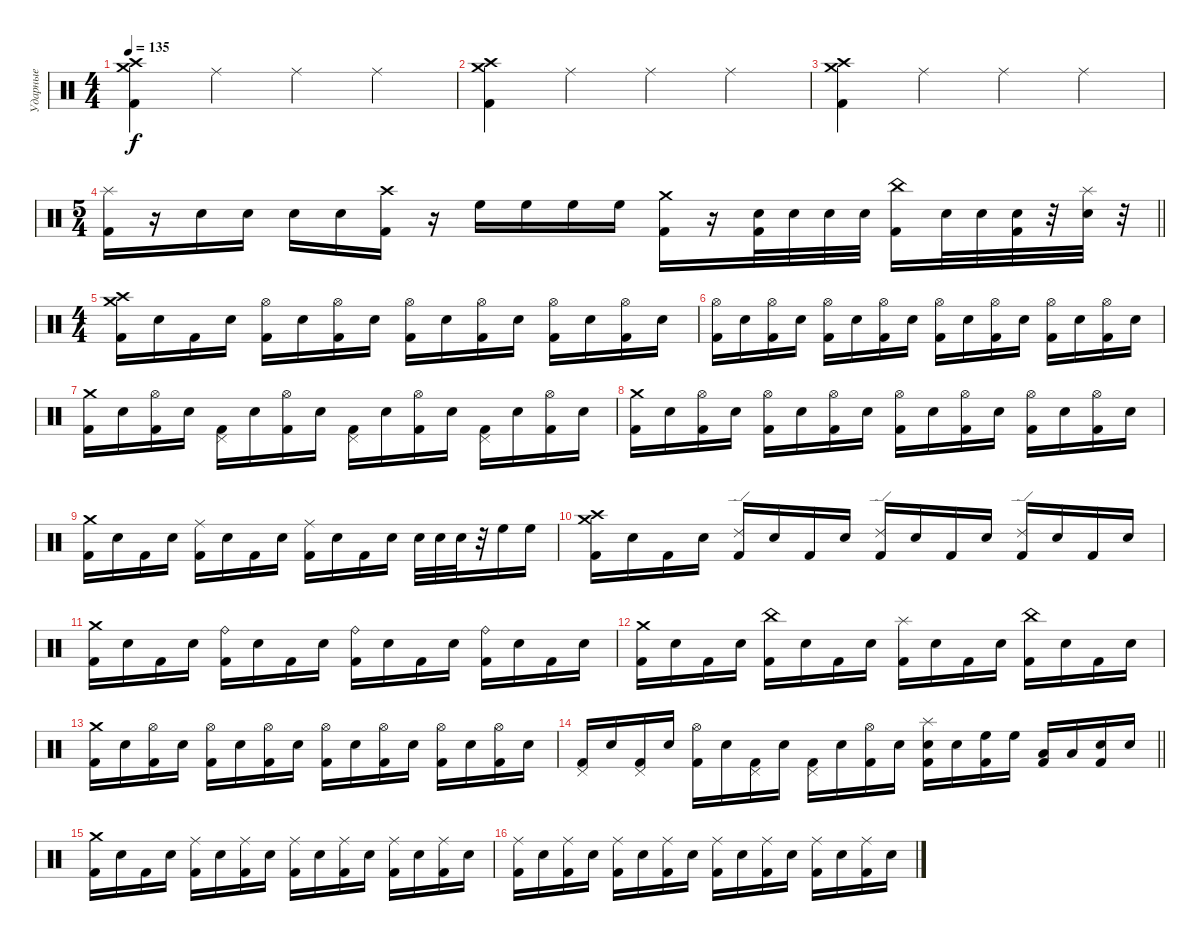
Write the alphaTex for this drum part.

\track ("Ударные" "Ударные") {instrument percussion}
\staff {score}
\articulation defaults
\ts (4 4)
\tempo 135
\clef neutral
\ks c
("Crash medium (hit)" "Crash high (hit)" "Kick (hit) 2").4{dy f} "Ride (middle)".4 "Ride (middle)".4 "Ride (middle)".4 |
("Crash medium (hit)" "Crash high (hit)" "Kick (hit) 2").4 "Ride (middle)".4 "Ride (middle)".4 "Ride (middle)".4 |
("Crash medium (hit)" "Crash high (hit)" "Kick (hit) 2").4 "Ride (middle)".4 "Ride (middle)".4 "Ride (middle)".4 |
\ts (5 4)
\barLineRight lightlight
("Splash (hit)" "Kick (hit) 2").16 r.16 "Electric Snare (hit)".16 "Electric Snare (hit)".16 "Electric Snare (hit)".16 "Electric Snare (hit)".16 ("Crash high (hit)" "Kick (hit) 2").16 r.16 "High Floor Tom (hit)".16 "High Floor Tom (hit)".16 "High Floor Tom (hit)".16 "High Floor Tom (hit)".16 ("Crash medium (hit)" "Kick (hit) 2").16 r.16 ("Electric Snare (hit)" "Kick (hit) 2").32 "Electric Snare (hit)".32 "Electric Snare (hit)".32 "Electric Snare (hit)".32 ("China (hit)" "Kick (hit) 2").16 "Electric Snare (hit)".32 "Electric Snare (hit)".32 ("Electric Snare (hit)" "Kick (hit) 2").32 r.32 ("Splash (hit)" "Electric Snare (hit)").32 r.32 |
\ts (4 4)
("Crash medium (hit)" "Crash high (hit)" "Kick (hit) 2").16 "Electric Snare (hit)".16 "Kick (hit) 2".16 "Electric Snare (hit)".16 ("Hi-Hat (open)" "Kick (hit) 2").16 "Electric Snare (hit)".16 ("Hi-Hat (open)" "Kick (hit) 2").16 "Electric Snare (hit)".16 ("Hi-Hat (open)" "Kick (hit) 2").16 "Electric Snare (hit)".16 ("Hi-Hat (open)" "Kick (hit) 2").16 "Electric Snare (hit)".16 ("Hi-Hat (open)" "Kick (hit) 2").16 "Electric Snare (hit)".16 ("Hi-Hat (open)" "Kick (hit) 2").16 "Electric Snare (hit)".16 |
("Hi-Hat (open)" "Kick (hit) 2").16 "Electric Snare (hit)".16 ("Hi-Hat (open)" "Kick (hit) 2").16 "Electric Snare (hit)".16 ("Hi-Hat (open)" "Kick (hit) 2").16 "Electric Snare (hit)".16 ("Hi-Hat (open)" "Kick (hit) 2").16 "Electric Snare (hit)".16 ("Hi-Hat (open)" "Kick (hit) 2").16 "Electric Snare (hit)".16 ("Hi-Hat (open)" "Kick (hit) 2").16 "Electric Snare (hit)".16 ("Hi-Hat (open)" "Kick (hit) 2").16 "Electric Snare (hit)".16 ("Hi-Hat (open)" "Kick (hit) 2").16 "Electric Snare (hit)".16 |
("Crash medium (hit)" "Kick (hit) 2").16 "Electric Snare (hit)".16 ("Hi-Hat (open)" "Kick (hit) 2").16 "Electric Snare (hit)".16 ("Pedal Hi-Hat (hit)" "Kick (hit) 2").16 "Electric Snare (hit)".16 ("Hi-Hat (open)" "Kick (hit) 2").16 "Electric Snare (hit)".16 ("Pedal Hi-Hat (hit)" "Kick (hit) 2").16 "Electric Snare (hit)".16 ("Hi-Hat (open)" "Kick (hit) 2").16 "Electric Snare (hit)".16 ("Pedal Hi-Hat (hit)" "Kick (hit) 2").16 "Electric Snare (hit)".16 ("Hi-Hat (open)" "Kick (hit) 2").16 "Electric Snare (hit)".16 |
("Crash medium (hit)" "Kick (hit) 2").16 "Electric Snare (hit)".16 ("Hi-Hat (open)" "Kick (hit) 2").16 "Electric Snare (hit)".16 ("Hi-Hat (open)" "Kick (hit) 2").16 "Electric Snare (hit)".16 ("Hi-Hat (open)" "Kick (hit) 2").16 "Electric Snare (hit)".16 ("Hi-Hat (open)" "Kick (hit) 2").16 "Electric Snare (hit)".16 ("Hi-Hat (open)" "Kick (hit) 2").16 "Electric Snare (hit)".16 ("Hi-Hat (open)" "Kick (hit) 2").16 "Electric Snare (hit)".16 ("Hi-Hat (open)" "Kick (hit) 2").16 "Electric Snare (hit)".16 |
("Crash medium (hit)" "Kick (hit) 2").16 "Electric Snare (hit)".16 "Kick (hit) 2".16 "Electric Snare (hit)".16 ("Ride (middle)" "Kick (hit) 2").16 "Electric Snare (hit)".16 "Kick (hit) 2".16 "Electric Snare (hit)".16 ("Ride (middle)" "Kick (hit) 2").16 "Electric Snare (hit)".16 "Kick (hit) 2".16 "Electric Snare (hit)".16 "Electric Snare (hit)".32 "Electric Snare (hit)".32 "Electric Snare (hit)".32 r.32 "High Floor Tom (hit)".16 "High Floor Tom (hit)".16 |
("Crash medium (hit)" "Crash high (hit)" "Kick (hit) 2").16 "Electric Snare (hit)".16 "Kick (hit) 2".16 "Electric Snare (hit)".16 ("Ride (edge) 2" "Kick (hit) 2").16 "Electric Snare (hit)".16 "Kick (hit) 2".16 "Electric Snare (hit)".16 ("Ride (edge) 2" "Kick (hit) 2").16 "Electric Snare (hit)".16 "Kick (hit) 2".16 "Electric Snare (hit)".16 ("Ride (edge) 2" "Kick (hit) 2").16 "Electric Snare (hit)".16 "Kick (hit) 2".16 "Electric Snare (hit)".16 |
("Crash medium (hit)" "Kick (hit) 2").16 "Electric Snare (hit)".16 "Kick (hit) 2".16 "Electric Snare (hit)".16 ("Ride (bell)" "Kick (hit) 2").16 "Electric Snare (hit)".16 "Kick (hit) 2".16 "Electric Snare (hit)".16 ("Ride (bell)" "Kick (hit) 2").16 "Electric Snare (hit)".16 "Kick (hit) 2".16 "Electric Snare (hit)".16 ("Ride (bell)" "Kick (hit) 2").16 "Electric Snare (hit)".16 "Kick (hit) 2".16 "Electric Snare (hit)".16 |
("Crash medium (hit)" "Kick (hit) 2").16 "Electric Snare (hit)".16 "Kick (hit) 2".16 "Electric Snare (hit)".16 ("China (hit)" "Kick (hit) 2").16 "Electric Snare (hit)".16 "Kick (hit) 2".16 "Electric Snare (hit)".16 ("Splash (hit)" "Kick (hit) 2").16 "Electric Snare (hit)".16 "Kick (hit) 2".16 "Electric Snare (hit)".16 ("China (hit)" "Kick (hit) 2").16 "Electric Snare (hit)".16 "Kick (hit) 2".16 "Electric Snare (hit)".16 |
("Crash medium (hit)" "Kick (hit) 2").16 "Electric Snare (hit)".16 ("Hi-Hat (open)" "Kick (hit) 2").16 "Electric Snare (hit)".16 ("Hi-Hat (open)" "Kick (hit) 2").16 "Electric Snare (hit)".16 ("Hi-Hat (open)" "Kick (hit) 2").16 "Electric Snare (hit)".16 ("Hi-Hat (open)" "Kick (hit) 2").16 "Electric Snare (hit)".16 ("Hi-Hat (open)" "Kick (hit) 2").16 "Electric Snare (hit)".16 ("Hi-Hat (open)" "Kick (hit) 2").16 "Electric Snare (hit)".16 ("Hi-Hat (open)" "Kick (hit) 2").16 "Electric Snare (hit)".16 |
\barLineRight lightlight
("Pedal Hi-Hat (hit)" "Kick (hit) 2").16 "Electric Snare (hit)".16 ("Pedal Hi-Hat (hit)" "Kick (hit) 2").16 "Electric Snare (hit)".16 ("Hi-Hat (open)" "Kick (hit) 2").16 "Electric Snare (hit)".16 ("Pedal Hi-Hat (hit)" "Kick (hit) 2").16 "Electric Snare (hit)".16 ("Pedal Hi-Hat (hit)" "Kick (hit) 2").16 "Electric Snare (hit)".16 ("Hi-Hat (open)" "Kick (hit) 2").16 "Electric Snare (hit)".16 ("Splash (hit)" "Electric Snare (hit)" "Kick (hit) 2").16 "Electric Snare (hit)".16 ("High Floor Tom (hit)" "Kick (hit) 2").16 "High Floor Tom (hit)".16 ("Low Tom (hit)" "Kick (hit) 2").16 "Low Tom (hit)".16 ("Electric Snare (hit)" "Kick (hit) 2").16 "Electric Snare (hit)".16 |
("Crash medium (hit)" "Kick (hit) 2").16 "Electric Snare (hit)".16 "Kick (hit) 2".16 "Electric Snare (hit)".16 ("Ride (middle)" "Kick (hit) 2").16 "Electric Snare (hit)".16 ("Ride (middle)" "Kick (hit) 2").16 "Electric Snare (hit)".16 ("Ride (middle)" "Kick (hit) 2").16 "Electric Snare (hit)".16 ("Ride (middle)" "Kick (hit) 2").16 "Electric Snare (hit)".16 ("Ride (middle)" "Kick (hit) 2").16 "Electric Snare (hit)".16 ("Ride (middle)" "Kick (hit) 2").16 "Electric Snare (hit)".16 |
("Ride (middle)" "Kick (hit) 2").16 "Electric Snare (hit)".16 ("Ride (middle)" "Kick (hit) 2").16 "Electric Snare (hit)".16 ("Ride (middle)" "Kick (hit) 2").16 "Electric Snare (hit)".16 ("Ride (middle)" "Kick (hit) 2").16 "Electric Snare (hit)".16 ("Ride (middle)" "Kick (hit) 2").16 "Electric Snare (hit)".16 ("Ride (middle)" "Kick (hit) 2").16 "Electric Snare (hit)".16 ("Ride (middle)" "Kick (hit) 2").16 "Electric Snare (hit)".16 ("Ride (middle)" "Kick (hit) 2").16 "Electric Snare (hit)".16
